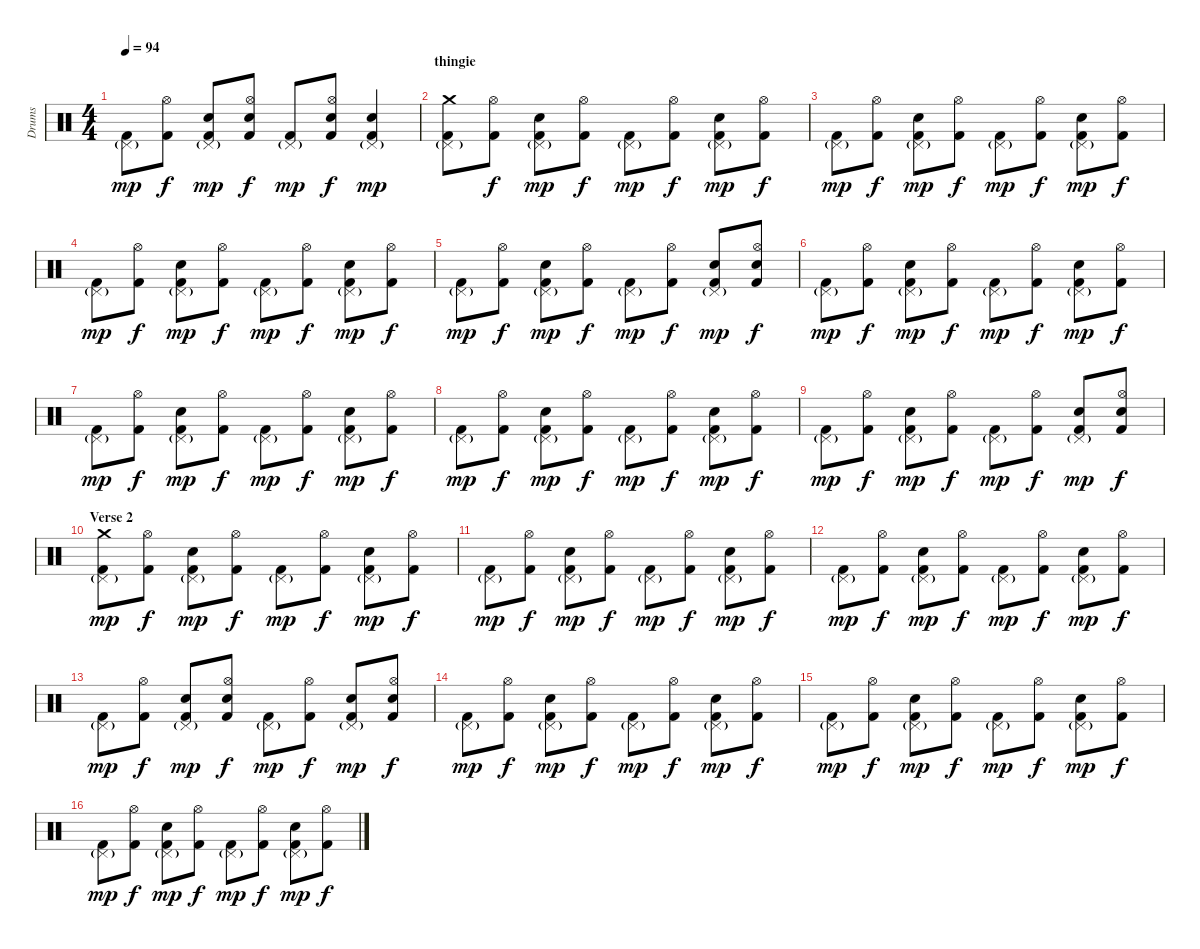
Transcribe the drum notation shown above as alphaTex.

\track ("Drums" "Drums") {instrument percussion}
\staff {score}
\articulation defaults
\ts (4 4)
\tempo 94
\clef neutral
\ks c
("Pedal Hi-Hat (hit)"{g} "Kick (hit) 2").8{dy mp} ("Hi-Hat (open)" "Kick (hit) 2").8{dy f} ("Pedal Hi-Hat (hit)"{g} "Snare (hit) 2" "Kick (hit) 2").8{dy mp} ("Hi-Hat (open)" "Snare (hit) 2" "Kick (hit) 2").8{dy f} ("Pedal Hi-Hat (hit)"{g} "Kick (hit) 2").8{dy mp} ("Hi-Hat (open)" "Snare (hit) 2" "Kick (hit) 2").8{dy f} ("Pedal Hi-Hat (hit)"{g} "Snare (hit) 2" "Kick (hit) 2").4{dy mp} |
\section ("" "thingie")
("Pedal Hi-Hat (hit)"{g} "Crash medium (hit)" "Kick (hit) 2").8 ("Hi-Hat (open)" "Kick (hit) 2").8{dy f} ("Pedal Hi-Hat (hit)"{g} "Snare (hit) 2" "Kick (hit) 2").8{dy mp} ("Hi-Hat (open)" "Kick (hit) 2").8{dy f} ("Pedal Hi-Hat (hit)"{g} "Kick (hit) 2").8{dy mp} ("Hi-Hat (open)" "Kick (hit) 2").8{dy f} ("Pedal Hi-Hat (hit)"{g} "Snare (hit) 2" "Kick (hit) 2").8{dy mp} ("Hi-Hat (open)" "Kick (hit) 2").8{dy f} |
("Pedal Hi-Hat (hit)"{g} "Kick (hit) 2").8{dy mp} ("Hi-Hat (open)" "Kick (hit) 2").8{dy f} ("Pedal Hi-Hat (hit)"{g} "Snare (hit) 2" "Kick (hit) 2").8{dy mp} ("Hi-Hat (open)" "Kick (hit) 2").8{dy f} ("Pedal Hi-Hat (hit)"{g} "Kick (hit) 2").8{dy mp} ("Hi-Hat (open)" "Kick (hit) 2").8{dy f} ("Pedal Hi-Hat (hit)"{g} "Snare (hit) 2" "Kick (hit) 2").8{dy mp} ("Hi-Hat (open)" "Kick (hit) 2").8{dy f} |
("Pedal Hi-Hat (hit)"{g} "Kick (hit) 2").8{dy mp} ("Hi-Hat (open)" "Kick (hit) 2").8{dy f} ("Pedal Hi-Hat (hit)"{g} "Snare (hit) 2" "Kick (hit) 2").8{dy mp} ("Hi-Hat (open)" "Kick (hit) 2").8{dy f} ("Pedal Hi-Hat (hit)"{g} "Kick (hit) 2").8{dy mp} ("Hi-Hat (open)" "Kick (hit) 2").8{dy f} ("Pedal Hi-Hat (hit)"{g} "Snare (hit) 2" "Kick (hit) 2").8{dy mp} ("Hi-Hat (open)" "Kick (hit) 2").8{dy f} |
("Pedal Hi-Hat (hit)"{g} "Kick (hit) 2").8{dy mp} ("Hi-Hat (open)" "Kick (hit) 2").8{dy f} ("Pedal Hi-Hat (hit)"{g} "Snare (hit) 2" "Kick (hit) 2").8{dy mp} ("Hi-Hat (open)" "Kick (hit) 2").8{dy f} ("Pedal Hi-Hat (hit)"{g} "Kick (hit) 2").8{dy mp} ("Hi-Hat (open)" "Kick (hit) 2").8{dy f} ("Pedal Hi-Hat (hit)"{g} "Snare (hit) 2" "Kick (hit) 2").8{dy mp} ("Hi-Hat (open)" "Snare (hit) 2" "Kick (hit) 2").8{dy f} |
("Pedal Hi-Hat (hit)"{g} "Kick (hit) 2").8{dy mp} ("Hi-Hat (open)" "Kick (hit) 2").8{dy f} ("Pedal Hi-Hat (hit)"{g} "Snare (hit) 2" "Kick (hit) 2").8{dy mp} ("Hi-Hat (open)" "Kick (hit) 2").8{dy f} ("Pedal Hi-Hat (hit)"{g} "Kick (hit) 2").8{dy mp} ("Hi-Hat (open)" "Kick (hit) 2").8{dy f} ("Pedal Hi-Hat (hit)"{g} "Snare (hit) 2" "Kick (hit) 2").8{dy mp} ("Hi-Hat (open)" "Kick (hit) 2").8{dy f} |
("Pedal Hi-Hat (hit)"{g} "Kick (hit) 2").8{dy mp} ("Hi-Hat (open)" "Kick (hit) 2").8{dy f} ("Pedal Hi-Hat (hit)"{g} "Snare (hit) 2" "Kick (hit) 2").8{dy mp} ("Hi-Hat (open)" "Kick (hit) 2").8{dy f} ("Pedal Hi-Hat (hit)"{g} "Kick (hit) 2").8{dy mp} ("Hi-Hat (open)" "Kick (hit) 2").8{dy f} ("Pedal Hi-Hat (hit)"{g} "Snare (hit) 2" "Kick (hit) 2").8{dy mp} ("Hi-Hat (open)" "Kick (hit) 2").8{dy f} |
("Pedal Hi-Hat (hit)"{g} "Kick (hit) 2").8{dy mp} ("Hi-Hat (open)" "Kick (hit) 2").8{dy f} ("Pedal Hi-Hat (hit)"{g} "Snare (hit) 2" "Kick (hit) 2").8{dy mp} ("Hi-Hat (open)" "Kick (hit) 2").8{dy f} ("Pedal Hi-Hat (hit)"{g} "Kick (hit) 2").8{dy mp} ("Hi-Hat (open)" "Kick (hit) 2").8{dy f} ("Pedal Hi-Hat (hit)"{g} "Snare (hit) 2" "Kick (hit) 2").8{dy mp} ("Hi-Hat (open)" "Kick (hit) 2").8{dy f} |
("Pedal Hi-Hat (hit)"{g} "Kick (hit) 2").8{dy mp} ("Hi-Hat (open)" "Kick (hit) 2").8{dy f} ("Pedal Hi-Hat (hit)"{g} "Snare (hit) 2" "Kick (hit) 2").8{dy mp} ("Hi-Hat (open)" "Kick (hit) 2").8{dy f} ("Pedal Hi-Hat (hit)"{g} "Kick (hit) 2").8{dy mp} ("Hi-Hat (open)" "Kick (hit) 2").8{dy f} ("Pedal Hi-Hat (hit)"{g} "Snare (hit) 2" "Kick (hit) 2").8{dy mp} ("Hi-Hat (open)" "Snare (hit) 2" "Kick (hit) 2").8{dy f} |
\section ("" "Verse 2")
("Pedal Hi-Hat (hit)"{g} "Crash medium (hit)" "Kick (hit) 2").8{dy mp} ("Hi-Hat (open)" "Kick (hit) 2").8{dy f} ("Pedal Hi-Hat (hit)"{g} "Snare (hit) 2" "Kick (hit) 2").8{dy mp} ("Hi-Hat (open)" "Kick (hit) 2").8{dy f} ("Pedal Hi-Hat (hit)"{g} "Kick (hit) 2").8{dy mp} ("Hi-Hat (open)" "Kick (hit) 2").8{dy f} ("Pedal Hi-Hat (hit)"{g} "Snare (hit) 2" "Kick (hit) 2").8{dy mp} ("Hi-Hat (open)" "Kick (hit) 2").8{dy f} |
("Pedal Hi-Hat (hit)"{g} "Kick (hit) 2").8{dy mp} ("Hi-Hat (open)" "Kick (hit) 2").8{dy f} ("Pedal Hi-Hat (hit)"{g} "Snare (hit) 2" "Kick (hit) 2").8{dy mp} ("Hi-Hat (open)" "Kick (hit) 2").8{dy f} ("Pedal Hi-Hat (hit)"{g} "Kick (hit) 2").8{dy mp} ("Hi-Hat (open)" "Kick (hit) 2").8{dy f} ("Pedal Hi-Hat (hit)"{g} "Snare (hit) 2" "Kick (hit) 2").8{dy mp} ("Hi-Hat (open)" "Kick (hit) 2").8{dy f} |
("Pedal Hi-Hat (hit)"{g} "Kick (hit) 2").8{dy mp} ("Hi-Hat (open)" "Kick (hit) 2").8{dy f} ("Pedal Hi-Hat (hit)"{g} "Snare (hit) 2" "Kick (hit) 2").8{dy mp} ("Hi-Hat (open)" "Kick (hit) 2").8{dy f} ("Pedal Hi-Hat (hit)"{g} "Kick (hit) 2").8{dy mp} ("Hi-Hat (open)" "Kick (hit) 2").8{dy f} ("Pedal Hi-Hat (hit)"{g} "Snare (hit) 2" "Kick (hit) 2").8{dy mp} ("Hi-Hat (open)" "Kick (hit) 2").8{dy f} |
("Pedal Hi-Hat (hit)"{g} "Kick (hit) 2").8{dy mp} ("Hi-Hat (open)" "Kick (hit) 2").8{dy f} ("Pedal Hi-Hat (hit)"{g} "Snare (hit) 2" "Kick (hit) 2").8{dy mp} ("Hi-Hat (open)" "Snare (hit) 2" "Kick (hit) 2").8{dy f} ("Pedal Hi-Hat (hit)"{g} "Kick (hit) 2").8{dy mp} ("Hi-Hat (open)" "Kick (hit) 2").8{dy f} ("Pedal Hi-Hat (hit)"{g} "Snare (hit) 2" "Kick (hit) 2").8{dy mp} ("Hi-Hat (open)" "Snare (hit) 2" "Kick (hit) 2").8{dy f} |
("Pedal Hi-Hat (hit)"{g} "Kick (hit) 2").8{dy mp} ("Hi-Hat (open)" "Kick (hit) 2").8{dy f} ("Pedal Hi-Hat (hit)"{g} "Snare (hit) 2" "Kick (hit) 2").8{dy mp} ("Hi-Hat (open)" "Kick (hit) 2").8{dy f} ("Pedal Hi-Hat (hit)"{g} "Kick (hit) 2").8{dy mp} ("Hi-Hat (open)" "Kick (hit) 2").8{dy f} ("Pedal Hi-Hat (hit)"{g} "Snare (hit) 2" "Kick (hit) 2").8{dy mp} ("Hi-Hat (open)" "Kick (hit) 2").8{dy f} |
("Pedal Hi-Hat (hit)"{g} "Kick (hit) 2").8{dy mp} ("Hi-Hat (open)" "Kick (hit) 2").8{dy f} ("Pedal Hi-Hat (hit)"{g} "Snare (hit) 2" "Kick (hit) 2").8{dy mp} ("Hi-Hat (open)" "Kick (hit) 2").8{dy f} ("Pedal Hi-Hat (hit)"{g} "Kick (hit) 2").8{dy mp} ("Hi-Hat (open)" "Kick (hit) 2").8{dy f} ("Pedal Hi-Hat (hit)"{g} "Snare (hit) 2" "Kick (hit) 2").8{dy mp} ("Hi-Hat (open)" "Kick (hit) 2").8{dy f} |
("Pedal Hi-Hat (hit)"{g} "Kick (hit) 2").8{dy mp} ("Hi-Hat (open)" "Kick (hit) 2").8{dy f} ("Pedal Hi-Hat (hit)"{g} "Snare (hit) 2" "Kick (hit) 2").8{dy mp} ("Hi-Hat (open)" "Kick (hit) 2").8{dy f} ("Pedal Hi-Hat (hit)"{g} "Kick (hit) 2").8{dy mp} ("Hi-Hat (open)" "Kick (hit) 2").8{dy f} ("Pedal Hi-Hat (hit)"{g} "Snare (hit) 2" "Kick (hit) 2").8{dy mp} ("Hi-Hat (open)" "Kick (hit) 2").8{dy f}
